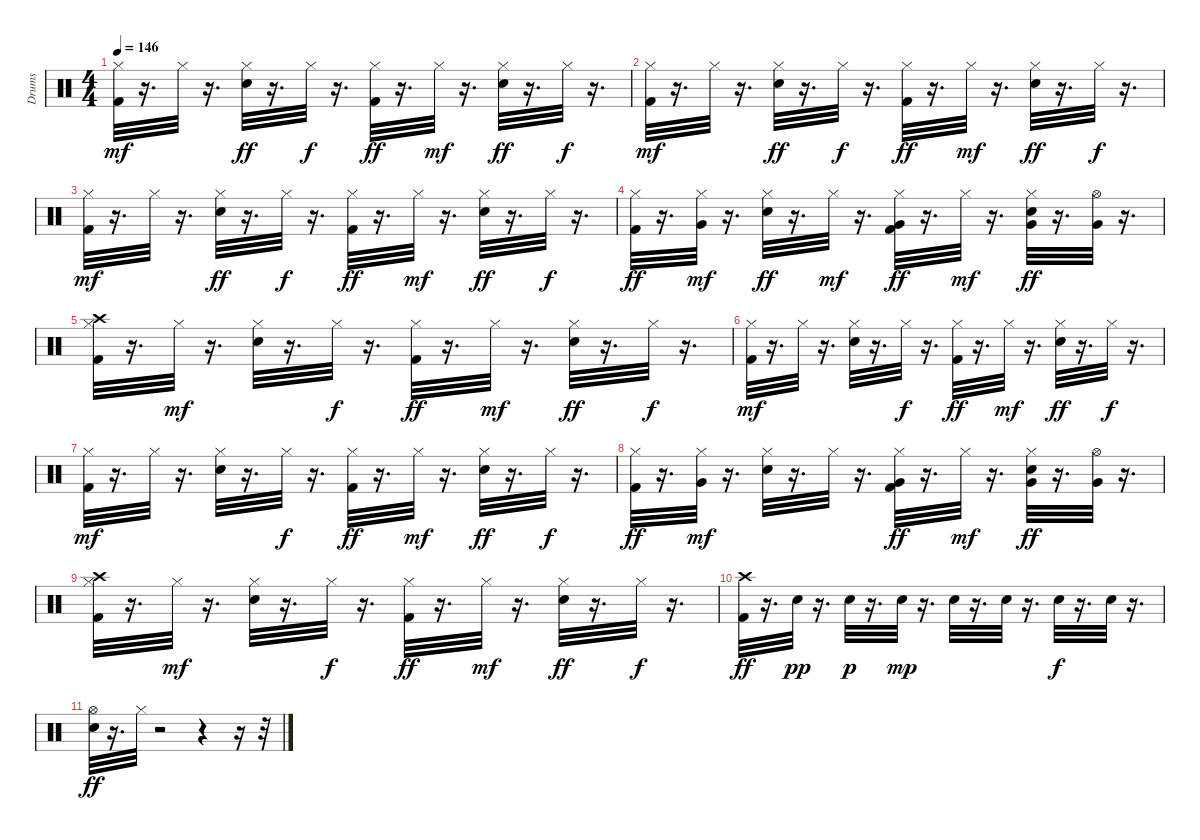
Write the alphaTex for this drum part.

\track ("Drums" "Drums") {instrument percussion}
\staff {score}
\articulation defaults
\ts (4 4)
\tempo 146
\clef neutral
\ks c
("Kick (hit) 2" "Hi-Hat (closed)").32{dy mf} r.16{d} "Hi-Hat (closed)".32 r.16{d} ("Hi-Hat (closed)" "Snare (hit) 2").32{dy ff} r.16{d} "Hi-Hat (closed)".32{dy f} r.16{d} ("Hi-Hat (closed)" "Kick (hit) 2").32{dy ff} r.16{d} "Hi-Hat (closed)".32{dy mf} r.16{d} ("Hi-Hat (closed)" "Snare (hit) 2").32{dy ff} r.16{d} "Hi-Hat (closed)".32{dy f} r.16{d} |
("Kick (hit) 2" "Hi-Hat (closed)").32{dy mf} r.16{d} "Hi-Hat (closed)".32 r.16{d} ("Hi-Hat (closed)" "Snare (hit) 2").32{dy ff} r.16{d} "Hi-Hat (closed)".32{dy f} r.16{d} ("Hi-Hat (closed)" "Kick (hit) 2").32{dy ff} r.16{d} "Hi-Hat (closed)".32{dy mf} r.16{d} ("Hi-Hat (closed)" "Snare (hit) 2").32{dy ff} r.16{d} "Hi-Hat (closed)".32{dy f} r.16{d} |
("Kick (hit) 2" "Hi-Hat (closed)").32{dy mf} r.16{d} "Hi-Hat (closed)".32 r.16{d} ("Hi-Hat (closed)" "Snare (hit) 2").32{dy ff} r.16{d} "Hi-Hat (closed)".32{dy f} r.16{d} ("Hi-Hat (closed)" "Kick (hit) 2").32{dy ff} r.16{d} "Hi-Hat (closed)".32{dy mf} r.16{d} ("Hi-Hat (closed)" "Snare (hit) 2").32{dy ff} r.16{d} "Hi-Hat (closed)".32{dy f} r.16{d} |
("Kick (hit) 2" "Hi-Hat (closed)").32{dy ff} r.16{d} ("Hi-Hat (closed)" "Very Low Tom (hit)").32{dy mf} r.16{d} ("Hi-Hat (closed)" "Snare (hit) 2").32{dy ff} r.16{d} "Hi-Hat (closed)".32{dy mf} r.16{d} ("Hi-Hat (closed)" "Kick (hit) 2" "Very Low Tom (hit)").32{dy ff} r.16{d} "Hi-Hat (closed)".32{dy mf} r.16{d} ("Hi-Hat (closed)" "Snare (hit) 2" "Very Low Tom (hit)").32{dy ff} r.16{d} ("Very Low Tom (hit)" "Hi-Hat (open)").32 r.16{d} |
("Kick (hit) 2" "Hi-Hat (closed)" "Crash high (hit)").32 r.16{d} "Hi-Hat (closed)".32{dy mf} r.16{d} ("Snare (hit) 2" "Hi-Hat (closed)").32 r.16{d} "Hi-Hat (closed)".32{dy f} r.16{d} ("Hi-Hat (closed)" "Kick (hit) 2").32{dy ff} r.16{d} "Hi-Hat (closed)".32{dy mf} r.16{d} ("Hi-Hat (closed)" "Snare (hit) 2").32{dy ff} r.16{d} "Hi-Hat (closed)".32{dy f} r.16{d} |
("Kick (hit) 2" "Hi-Hat (closed)").32{dy mf} r.16{d} "Hi-Hat (closed)".32 r.16{d} ("Snare (hit) 2" "Hi-Hat (closed)").32 r.16{d} "Hi-Hat (closed)".32{dy f} r.16{d} ("Hi-Hat (closed)" "Kick (hit) 2").32{dy ff} r.16{d} "Hi-Hat (closed)".32{dy mf} r.16{d} ("Hi-Hat (closed)" "Snare (hit) 2").32{dy ff} r.16{d} "Hi-Hat (closed)".32{dy f} r.16{d} |
("Kick (hit) 2" "Hi-Hat (closed)").32{dy mf} r.16{d} "Hi-Hat (closed)".32 r.16{d} ("Snare (hit) 2" "Hi-Hat (closed)").32 r.16{d} "Hi-Hat (closed)".32{dy f} r.16{d} ("Hi-Hat (closed)" "Kick (hit) 2").32{dy ff} r.16{d} "Hi-Hat (closed)".32{dy mf} r.16{d} ("Hi-Hat (closed)" "Snare (hit) 2").32{dy ff} r.16{d} "Hi-Hat (closed)".32{dy f} r.16{d} |
("Kick (hit) 2" "Hi-Hat (closed)").32{dy ff} r.16{d} ("Hi-Hat (closed)" "Very Low Tom (hit)").32{dy mf} r.16{d} ("Snare (hit) 2" "Hi-Hat (closed)").32 r.16{d} "Hi-Hat (closed)".32 r.16{d} ("Hi-Hat (closed)" "Kick (hit) 2" "Very Low Tom (hit)").32{dy ff} r.16{d} "Hi-Hat (closed)".32{dy mf} r.16{d} ("Hi-Hat (closed)" "Snare (hit) 2" "Very Low Tom (hit)").32{dy ff} r.16{d} ("Hi-Hat (open)" "Very Low Tom (hit)").32 r.16{d} |
("Hi-Hat (closed)" "Kick (hit) 2" "Crash high (hit)").32 r.16{d} "Hi-Hat (closed)".32{dy mf} r.16{d} ("Snare (hit) 2" "Hi-Hat (closed)").32 r.16{d} "Hi-Hat (closed)".32{dy f} r.16{d} ("Kick (hit) 2" "Hi-Hat (closed)").32{dy ff} r.16{d} "Hi-Hat (closed)".32{dy mf} r.16{d} ("Hi-Hat (closed)" "Snare (hit) 2").32{dy ff} r.16{d} "Hi-Hat (closed)".32{dy f} r.16{d} |
("Kick (hit) 2" "Crash high (hit)").32{dy ff} r.16{d} "Snare (hit) 2".32{dy pp} r.16{d} "Snare (hit) 2".32{dy p} r.16{d} "Snare (hit) 2".32{dy mp} r.16{d} "Snare (hit) 2".32 r.16{d} "Snare (hit) 2".32 r.16{d} "Snare (hit) 2".32{dy f} r.16{d} "Snare (hit) 2".32 r.16{d} |
("Snare (hit) 2" "Hi-Hat (open)").32{dy ff} r.16{d} "Hi-Hat (closed)".32 r.2 r.4 r.16 r.32
